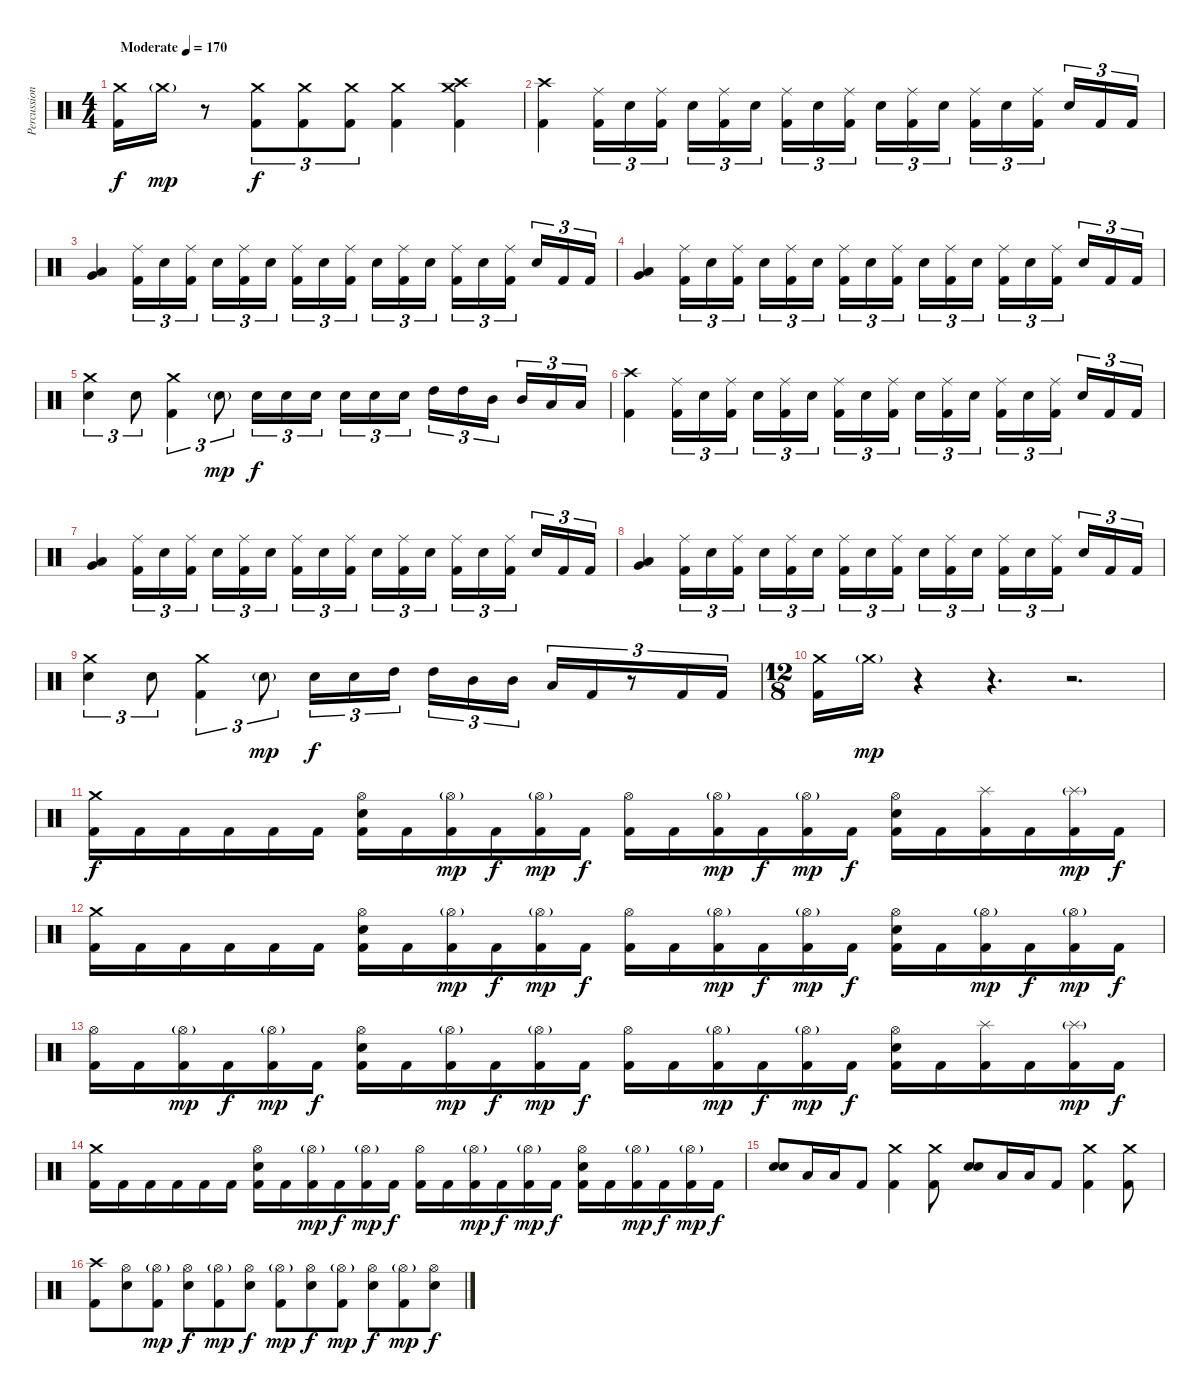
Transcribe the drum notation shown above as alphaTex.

\track ("Percussion" "Percussion") {instrument percussion}
\staff {score}
\articulation defaults
\ts (4 4)
\tempo (170 "Moderate")
\clef neutral
\ks c
("Crash medium (hit)" "Kick (hit) 2").16{dy f} "Crash medium (hit)"{g}.16{dy mp} r.8 ("Crash medium (hit)" "Kick (hit) 2").8{tu (3 2) dy f} ("Crash medium (hit)" "Kick (hit) 2").8{tu (3 2)} ("Crash medium (hit)" "Kick (hit) 2").8{tu (3 2)} ("Crash medium (hit)" "Kick (hit) 2").4 ("Crash medium (hit)" "Crash high (hit)" "Kick (hit) 2").4 |
("Crash high (hit)" "Kick (hit) 2").4 ("Ride (middle)" "Kick (hit) 2").16{tu (3 2)} "Electric Snare (hit)".16{tu (3 2)} ("Ride (middle)" "Kick (hit) 2").16{tu (3 2) beam splitsecondary} "Electric Snare (hit)".16{tu (3 2)} ("Ride (middle)" "Kick (hit) 2").16{tu (3 2)} "Electric Snare (hit)".16{tu (3 2)} ("Ride (middle)" "Kick (hit) 2").16{tu (3 2)} "Electric Snare (hit)".16{tu (3 2)} ("Ride (middle)" "Kick (hit) 2").16{tu (3 2) beam splitsecondary} "Electric Snare (hit)".16{tu (3 2)} ("Ride (middle)" "Kick (hit) 2").16{tu (3 2)} "Electric Snare (hit)".16{tu (3 2)} ("Ride (middle)" "Kick (hit) 2").16{tu (3 2)} "Electric Snare (hit)".16{tu (3 2)} ("Ride (middle)" "Kick (hit) 2").16{tu (3 2) beam splitsecondary} "Electric Snare (hit)".16{tu (3 2)} "Kick (hit) 2".16{tu (3 2)} "Kick (hit) 2".16{tu (3 2)} |
("Very Low Tom (hit)" "Low Floor Tom (hit)").4{bd 240} ("Ride (middle)" "Kick (hit) 2").16{tu (3 2)} "Electric Snare (hit)".16{tu (3 2)} ("Ride (middle)" "Kick (hit) 2").16{tu (3 2) beam splitsecondary} "Electric Snare (hit)".16{tu (3 2)} ("Ride (middle)" "Kick (hit) 2").16{tu (3 2)} "Electric Snare (hit)".16{tu (3 2)} ("Ride (middle)" "Kick (hit) 2").16{tu (3 2)} "Electric Snare (hit)".16{tu (3 2)} ("Ride (middle)" "Kick (hit) 2").16{tu (3 2) beam splitsecondary} "Electric Snare (hit)".16{tu (3 2)} ("Ride (middle)" "Kick (hit) 2").16{tu (3 2)} "Electric Snare (hit)".16{tu (3 2)} ("Ride (middle)" "Kick (hit) 2").16{tu (3 2)} "Electric Snare (hit)".16{tu (3 2)} ("Ride (middle)" "Kick (hit) 2").16{tu (3 2) beam splitsecondary} "Electric Snare (hit)".16{tu (3 2)} "Kick (hit) 2".16{tu (3 2)} "Kick (hit) 2".16{tu (3 2)} |
("Very Low Tom (hit)" "Low Floor Tom (hit)").4{bd 240} ("Ride (middle)" "Kick (hit) 2").16{tu (3 2)} "Electric Snare (hit)".16{tu (3 2)} ("Ride (middle)" "Kick (hit) 2").16{tu (3 2) beam splitsecondary} "Electric Snare (hit)".16{tu (3 2)} ("Ride (middle)" "Kick (hit) 2").16{tu (3 2)} "Electric Snare (hit)".16{tu (3 2)} ("Ride (middle)" "Kick (hit) 2").16{tu (3 2)} "Electric Snare (hit)".16{tu (3 2)} ("Ride (middle)" "Kick (hit) 2").16{tu (3 2) beam splitsecondary} "Electric Snare (hit)".16{tu (3 2)} ("Ride (middle)" "Kick (hit) 2").16{tu (3 2)} "Electric Snare (hit)".16{tu (3 2)} ("Ride (middle)" "Kick (hit) 2").16{tu (3 2)} "Electric Snare (hit)".16{tu (3 2)} ("Ride (middle)" "Kick (hit) 2").16{tu (3 2) beam splitsecondary} "Electric Snare (hit)".16{tu (3 2)} "Kick (hit) 2".16{tu (3 2)} "Kick (hit) 2".16{tu (3 2)} |
("Crash medium (hit)" "Electric Snare (hit)").4{tu (3 2)} "Electric Snare (hit)".8{tu (3 2)} ("Crash medium (hit)" "Kick (hit) 2").4{tu (3 2)} "Electric Snare (hit)"{g}.8{tu (3 2) dy mp} "Electric Snare (hit)".16{tu (3 2) dy f} "Electric Snare (hit)".16{tu (3 2)} "Electric Snare (hit)".16{tu (3 2) beam splitsecondary} "Electric Snare (hit)".16{tu (3 2)} "Electric Snare (hit)".16{tu (3 2)} "Electric Snare (hit)".16{tu (3 2)} "High Tom (hit)".16{tu (3 2)} "High Tom (hit)".16{tu (3 2)} "Mid Tom (hit)".16{tu (3 2) beam splitsecondary} "Mid Tom (hit)".16{tu (3 2)} "Low Tom (hit)".16{tu (3 2)} "Low Tom (hit)".16{tu (3 2)} |
("Crash high (hit)" "Kick (hit) 2").4 ("Ride (middle)" "Kick (hit) 2").16{tu (3 2)} "Electric Snare (hit)".16{tu (3 2)} ("Ride (middle)" "Kick (hit) 2").16{tu (3 2) beam splitsecondary} "Electric Snare (hit)".16{tu (3 2)} ("Ride (middle)" "Kick (hit) 2").16{tu (3 2)} "Electric Snare (hit)".16{tu (3 2)} ("Ride (middle)" "Kick (hit) 2").16{tu (3 2)} "Electric Snare (hit)".16{tu (3 2)} ("Ride (middle)" "Kick (hit) 2").16{tu (3 2) beam splitsecondary} "Electric Snare (hit)".16{tu (3 2)} ("Ride (middle)" "Kick (hit) 2").16{tu (3 2)} "Electric Snare (hit)".16{tu (3 2)} ("Ride (middle)" "Kick (hit) 2").16{tu (3 2)} "Electric Snare (hit)".16{tu (3 2)} ("Ride (middle)" "Kick (hit) 2").16{tu (3 2) beam splitsecondary} "Electric Snare (hit)".16{tu (3 2)} "Kick (hit) 2".16{tu (3 2)} "Kick (hit) 2".16{tu (3 2)} |
("Very Low Tom (hit)" "Low Floor Tom (hit)").4{bd 240} ("Ride (middle)" "Kick (hit) 2").16{tu (3 2)} "Electric Snare (hit)".16{tu (3 2)} ("Ride (middle)" "Kick (hit) 2").16{tu (3 2) beam splitsecondary} "Electric Snare (hit)".16{tu (3 2)} ("Ride (middle)" "Kick (hit) 2").16{tu (3 2)} "Electric Snare (hit)".16{tu (3 2)} ("Ride (middle)" "Kick (hit) 2").16{tu (3 2)} "Electric Snare (hit)".16{tu (3 2)} ("Ride (middle)" "Kick (hit) 2").16{tu (3 2) beam splitsecondary} "Electric Snare (hit)".16{tu (3 2)} ("Ride (middle)" "Kick (hit) 2").16{tu (3 2)} "Electric Snare (hit)".16{tu (3 2)} ("Ride (middle)" "Kick (hit) 2").16{tu (3 2)} "Electric Snare (hit)".16{tu (3 2)} ("Ride (middle)" "Kick (hit) 2").16{tu (3 2) beam splitsecondary} "Electric Snare (hit)".16{tu (3 2)} "Kick (hit) 2".16{tu (3 2)} "Kick (hit) 2".16{tu (3 2)} |
("Very Low Tom (hit)" "Low Floor Tom (hit)").4{bd 240} ("Ride (middle)" "Kick (hit) 2").16{tu (3 2)} "Electric Snare (hit)".16{tu (3 2)} ("Ride (middle)" "Kick (hit) 2").16{tu (3 2) beam splitsecondary} "Electric Snare (hit)".16{tu (3 2)} ("Ride (middle)" "Kick (hit) 2").16{tu (3 2)} "Electric Snare (hit)".16{tu (3 2)} ("Ride (middle)" "Kick (hit) 2").16{tu (3 2)} "Electric Snare (hit)".16{tu (3 2)} ("Ride (middle)" "Kick (hit) 2").16{tu (3 2) beam splitsecondary} "Electric Snare (hit)".16{tu (3 2)} ("Ride (middle)" "Kick (hit) 2").16{tu (3 2)} "Electric Snare (hit)".16{tu (3 2)} ("Ride (middle)" "Kick (hit) 2").16{tu (3 2)} "Electric Snare (hit)".16{tu (3 2)} ("Ride (middle)" "Kick (hit) 2").16{tu (3 2) beam splitsecondary} "Electric Snare (hit)".16{tu (3 2)} "Kick (hit) 2".16{tu (3 2)} "Kick (hit) 2".16{tu (3 2)} |
("Crash medium (hit)" "Electric Snare (hit)").4{tu (3 2)} "Electric Snare (hit)".8{tu (3 2)} ("Crash medium (hit)" "Kick (hit) 2").4{tu (3 2)} "Electric Snare (hit)"{g}.8{tu (3 2) dy mp} "Electric Snare (hit)".16{tu (3 2) dy f} "Electric Snare (hit)".16{tu (3 2)} "High Tom (hit)".16{tu (3 2) beam splitsecondary} "High Tom (hit)".16{tu (3 2)} "Mid Tom (hit)".16{tu (3 2)} "Mid Tom (hit)".16{tu (3 2)} "Low Tom (hit)".16{tu (3 2)} "Kick (hit) 2".16{tu (3 2)} r.8{tu (3 2)} "Kick (hit) 2".16{tu (3 2)} "Kick (hit) 2".16{tu (3 2)} |
\ts (12 8)
("Crash medium (hit)" "Kick (hit) 2").16 "Crash medium (hit)"{g}.16{dy mp} r.4 r.4{d} r.2{d} |
("Crash medium (hit)" "Kick (hit) 2").16{dy f} "Kick (hit) 2".16 "Kick (hit) 2".16 "Kick (hit) 2".16 "Kick (hit) 2".16 "Kick (hit) 2".16 ("Hi-Hat (open)" "Electric Snare (hit)" "Kick (hit) 2").16 "Kick (hit) 2".16 ("Hi-Hat (open)"{g} "Kick (hit) 2").16{dy mp} "Kick (hit) 2".16{dy f} ("Hi-Hat (open)"{g} "Kick (hit) 2").16{dy mp} "Kick (hit) 2".16{dy f} ("Hi-Hat (open)" "Kick (hit) 2").16 "Kick (hit) 2".16 ("Hi-Hat (open)"{g} "Kick (hit) 2").16{dy mp} "Kick (hit) 2".16{dy f} ("Hi-Hat (open)"{g} "Kick (hit) 2").16{dy mp} "Kick (hit) 2".16{dy f} ("Hi-Hat (open)" "Electric Snare (hit)" "Kick (hit) 2").16 "Kick (hit) 2".16 ("Splash (hit)" "Kick (hit) 2").16 "Kick (hit) 2".16 ("Splash (hit)"{g} "Kick (hit) 2").16{dy mp} "Kick (hit) 2".16{dy f} |
("Crash medium (hit)" "Kick (hit) 2").16 "Kick (hit) 2".16 "Kick (hit) 2".16 "Kick (hit) 2".16 "Kick (hit) 2".16 "Kick (hit) 2".16 ("Hi-Hat (open)" "Electric Snare (hit)" "Kick (hit) 2").16 "Kick (hit) 2".16 ("Hi-Hat (open)"{g} "Kick (hit) 2").16{dy mp} "Kick (hit) 2".16{dy f} ("Hi-Hat (open)"{g} "Kick (hit) 2").16{dy mp} "Kick (hit) 2".16{dy f} ("Hi-Hat (open)" "Kick (hit) 2").16 "Kick (hit) 2".16 ("Hi-Hat (open)"{g} "Kick (hit) 2").16{dy mp} "Kick (hit) 2".16{dy f} ("Hi-Hat (open)"{g} "Kick (hit) 2").16{dy mp} "Kick (hit) 2".16{dy f} ("Hi-Hat (open)" "Electric Snare (hit)" "Kick (hit) 2").16 "Kick (hit) 2".16 ("Hi-Hat (open)"{g} "Kick (hit) 2").16{dy mp} "Kick (hit) 2".16{dy f} ("Hi-Hat (open)"{g} "Kick (hit) 2").16{dy mp} "Kick (hit) 2".16{dy f} |
("Hi-Hat (open)" "Kick (hit) 2").16 "Kick (hit) 2".16 ("Hi-Hat (open)"{g} "Kick (hit) 2").16{dy mp} "Kick (hit) 2".16{dy f} ("Hi-Hat (open)"{g} "Kick (hit) 2").16{dy mp} "Kick (hit) 2".16{dy f} ("Hi-Hat (open)" "Electric Snare (hit)" "Kick (hit) 2").16 "Kick (hit) 2".16 ("Hi-Hat (open)"{g} "Kick (hit) 2").16{dy mp} "Kick (hit) 2".16{dy f} ("Hi-Hat (open)"{g} "Kick (hit) 2").16{dy mp} "Kick (hit) 2".16{dy f} ("Hi-Hat (open)" "Kick (hit) 2").16 "Kick (hit) 2".16 ("Hi-Hat (open)"{g} "Kick (hit) 2").16{dy mp} "Kick (hit) 2".16{dy f} ("Hi-Hat (open)"{g} "Kick (hit) 2").16{dy mp} "Kick (hit) 2".16{dy f} ("Hi-Hat (open)" "Electric Snare (hit)" "Kick (hit) 2").16 "Kick (hit) 2".16 ("Splash (hit)" "Kick (hit) 2").16 "Kick (hit) 2".16 ("Splash (hit)"{g} "Kick (hit) 2").16{dy mp} "Kick (hit) 2".16{dy f} |
("Crash medium (hit)" "Kick (hit) 2").16 "Kick (hit) 2".16 "Kick (hit) 2".16 "Kick (hit) 2".16 "Kick (hit) 2".16 "Kick (hit) 2".16 ("Hi-Hat (open)" "Electric Snare (hit)" "Kick (hit) 2").16 "Kick (hit) 2".16 ("Hi-Hat (open)"{g} "Kick (hit) 2").16{dy mp} "Kick (hit) 2".16{dy f} ("Hi-Hat (open)"{g} "Kick (hit) 2").16{dy mp} "Kick (hit) 2".16{dy f} ("Hi-Hat (open)" "Kick (hit) 2").16 "Kick (hit) 2".16 ("Hi-Hat (open)"{g} "Kick (hit) 2").16{dy mp} "Kick (hit) 2".16{dy f} ("Hi-Hat (open)"{g} "Kick (hit) 2").16{dy mp} "Kick (hit) 2".16{dy f} ("Hi-Hat (open)" "Electric Snare (hit)" "Kick (hit) 2").16 "Kick (hit) 2".16 ("Hi-Hat (open)"{g} "Kick (hit) 2").16{dy mp} "Kick (hit) 2".16{dy f} ("Hi-Hat (open)"{g} "Kick (hit) 2").16{dy mp} "Kick (hit) 2".16{dy f} |
("Electric Snare (hit)" "Electric Snare (hit)").8{bd 240} "Low Floor Tom (hit)".16 "Low Floor Tom (hit)".16 "Kick (hit) 2".8 ("Crash medium (hit)" "Kick (hit) 2").4 ("Crash medium (hit)" "Kick (hit) 2").8 ("Electric Snare (hit)" "Electric Snare (hit)").8{bd 240} "Low Floor Tom (hit)".16 "Low Floor Tom (hit)".16 "Kick (hit) 2".8 ("Crash medium (hit)" "Kick (hit) 2").4 ("Crash medium (hit)" "Kick (hit) 2").8 |
("Crash high (hit)" "Kick (hit) 2").8 ("Hi-Hat (open)" "Electric Snare (hit)").8 ("Hi-Hat (open)"{g} "Kick (hit) 2").8{dy mp} ("Hi-Hat (open)" "Electric Snare (hit)").8{dy f} ("Hi-Hat (open)"{g} "Kick (hit) 2").8{dy mp} ("Hi-Hat (open)" "Electric Snare (hit)").8{dy f} ("Hi-Hat (open)"{g} "Kick (hit) 2").8{dy mp} ("Hi-Hat (open)" "Electric Snare (hit)").8{dy f} ("Hi-Hat (open)"{g} "Kick (hit) 2").8{dy mp} ("Hi-Hat (open)" "Electric Snare (hit)").8{dy f} ("Hi-Hat (open)"{g} "Kick (hit) 2").8{dy mp} ("Hi-Hat (open)" "Electric Snare (hit)").8{dy f}
